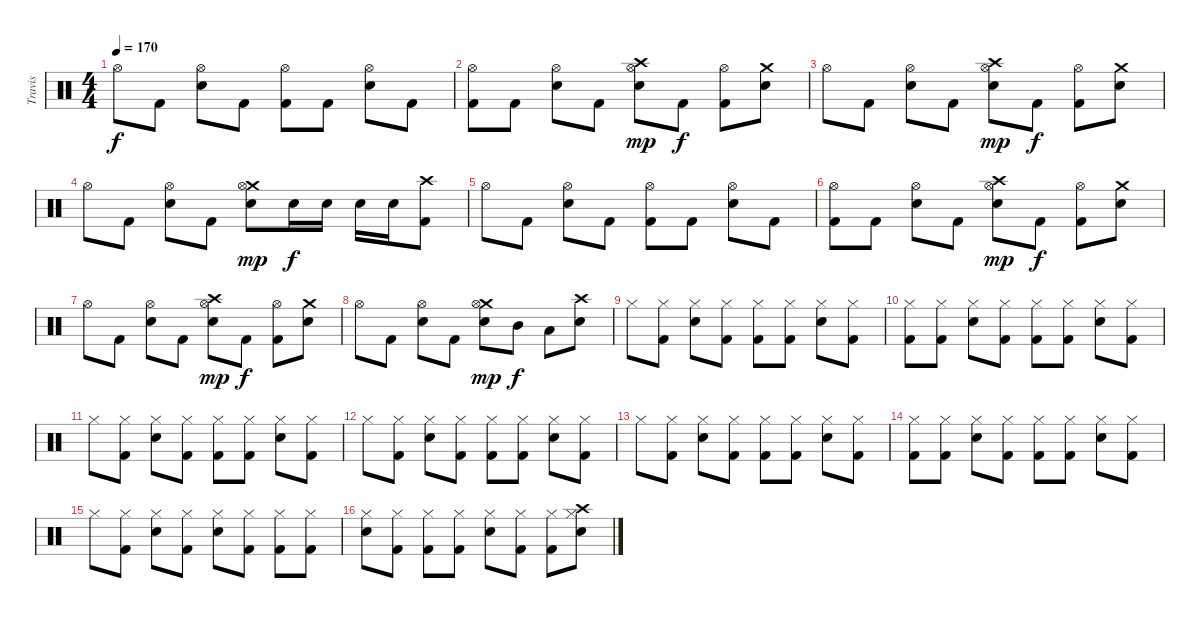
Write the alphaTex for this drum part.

\track ("Travis" "Travis") {instrument percussion}
\staff {score}
\articulation defaults
\ts (4 4)
\tempo 170
\clef neutral
\ks c "Hi-Hat (open)".8{dy f} "Kick (hit) 2".8
("Hi-Hat (open)" "Snare (hit) 2").8 "Kick (hit) 2".8 ("Hi-Hat (open)" "Kick (hit) 2").8 "Kick (hit) 2".8 ("Hi-Hat (open)" "Snare (hit) 2").8 "Kick (hit) 2".8 |
("Hi-Hat (open)" "Kick (hit) 2").8 "Kick (hit) 2".8 ("Hi-Hat (open)" "Snare (hit) 2").8 "Kick (hit) 2".8 ("Crash high (hit)" "Hi-Hat (open)" "Snare (hit) 2").8{dy mp} "Kick (hit) 2".8{dy f} ("Hi-Hat (open)" "Kick (hit) 2").8 ("Crash medium (hit)" "Snare (hit) 2").8 |
"Hi-Hat (open)".8 "Kick (hit) 2".8 ("Hi-Hat (open)" "Snare (hit) 2").8 "Kick (hit) 2".8 ("Crash high (hit)" "Hi-Hat (open)" "Snare (hit) 2").8{dy mp} "Kick (hit) 2".8{dy f} ("Hi-Hat (open)" "Kick (hit) 2").8 ("Crash medium (hit)" "Snare (hit) 2").8 |
"Hi-Hat (open)".8 "Kick (hit) 2".8 ("Hi-Hat (open)" "Snare (hit) 2").8 "Kick (hit) 2".8 ("Crash medium (hit)" "Hi-Hat (open)" "Snare (hit) 2").8{dy mp} "Snare (hit) 2".16{dy f} "Snare (hit) 2".16 "Snare (hit) 2".16 "Snare (hit) 2".16 ("Crash high (hit)" "Kick (hit) 2").8 |
"Hi-Hat (open)".8 "Kick (hit) 2".8 ("Hi-Hat (open)" "Snare (hit) 2").8 "Kick (hit) 2".8 ("Hi-Hat (open)" "Kick (hit) 2").8 "Kick (hit) 2".8 ("Hi-Hat (open)" "Snare (hit) 2").8 "Kick (hit) 2".8 |
("Hi-Hat (open)" "Kick (hit) 2").8 "Kick (hit) 2".8 ("Hi-Hat (open)" "Snare (hit) 2").8 "Kick (hit) 2".8 ("Crash high (hit)" "Hi-Hat (open)" "Snare (hit) 2").8{dy mp} "Kick (hit) 2".8{dy f} ("Hi-Hat (open)" "Kick (hit) 2").8 ("Crash medium (hit)" "Snare (hit) 2").8 |
"Hi-Hat (open)".8 "Kick (hit) 2".8 ("Hi-Hat (open)" "Snare (hit) 2").8 "Kick (hit) 2".8 ("Crash high (hit)" "Hi-Hat (open)" "Snare (hit) 2").8{dy mp} "Kick (hit) 2".8{dy f} ("Hi-Hat (open)" "Kick (hit) 2").8 ("Crash medium (hit)" "Snare (hit) 2").8 |
"Hi-Hat (open)".8 "Kick (hit) 2".8 ("Hi-Hat (open)" "Snare (hit) 2").8 "Kick (hit) 2".8 ("Crash medium (hit)" "Hi-Hat (open)" "Snare (hit) 2").8{dy mp} "Mid Tom (hit)".8{dy f} "Low Tom (hit)".8 ("Crash high (hit)" "Snare (hit) 2").8 |
"Hi-Hat (closed)".8 ("Hi-Hat (closed)" "Kick (hit) 2").8 ("Hi-Hat (closed)" "Snare (hit) 2").8 ("Hi-Hat (closed)" "Kick (hit) 2").8 ("Hi-Hat (closed)" "Kick (hit) 2").8 ("Hi-Hat (closed)" "Kick (hit) 2").8 ("Hi-Hat (closed)" "Snare (hit) 2").8 ("Hi-Hat (closed)" "Kick (hit) 2").8 |
("Hi-Hat (closed)" "Kick (hit) 2").8 ("Hi-Hat (closed)" "Kick (hit) 2").8 ("Hi-Hat (closed)" "Snare (hit) 2").8 ("Hi-Hat (closed)" "Kick (hit) 2").8 ("Hi-Hat (closed)" "Kick (hit) 2").8 ("Hi-Hat (closed)" "Kick (hit) 2").8 ("Hi-Hat (closed)" "Snare (hit) 2").8 ("Hi-Hat (closed)" "Kick (hit) 2").8 |
"Hi-Hat (closed)".8 ("Hi-Hat (closed)" "Kick (hit) 2").8 ("Hi-Hat (closed)" "Snare (hit) 2").8 ("Hi-Hat (closed)" "Kick (hit) 2").8 ("Hi-Hat (closed)" "Kick (hit) 2").8 ("Hi-Hat (closed)" "Kick (hit) 2").8 ("Hi-Hat (closed)" "Snare (hit) 2").8 ("Hi-Hat (closed)" "Kick (hit) 2").8 |
"Hi-Hat (closed)".8 ("Hi-Hat (closed)" "Kick (hit) 2").8 ("Hi-Hat (closed)" "Snare (hit) 2").8 ("Hi-Hat (closed)" "Kick (hit) 2").8 ("Hi-Hat (closed)" "Kick (hit) 2").8 ("Hi-Hat (closed)" "Kick (hit) 2").8 ("Hi-Hat (closed)" "Snare (hit) 2").8 ("Hi-Hat (closed)" "Kick (hit) 2").8 |
"Hi-Hat (closed)".8 ("Hi-Hat (closed)" "Kick (hit) 2").8 ("Hi-Hat (closed)" "Snare (hit) 2").8 ("Hi-Hat (closed)" "Kick (hit) 2").8 ("Hi-Hat (closed)" "Kick (hit) 2").8 ("Hi-Hat (closed)" "Kick (hit) 2").8 ("Hi-Hat (closed)" "Snare (hit) 2").8 ("Hi-Hat (closed)" "Kick (hit) 2").8 |
("Hi-Hat (closed)" "Kick (hit) 2").8 ("Hi-Hat (closed)" "Kick (hit) 2").8 ("Hi-Hat (closed)" "Snare (hit) 2").8 ("Hi-Hat (closed)" "Kick (hit) 2").8 ("Hi-Hat (closed)" "Kick (hit) 2").8 ("Hi-Hat (closed)" "Kick (hit) 2").8 ("Hi-Hat (closed)" "Snare (hit) 2").8 ("Hi-Hat (closed)" "Kick (hit) 2").8 |
"Hi-Hat (closed)".8 ("Hi-Hat (closed)" "Kick (hit) 2").8 ("Hi-Hat (closed)" "Snare (hit) 2").8 ("Hi-Hat (closed)" "Kick (hit) 2").8 ("Hi-Hat (closed)" "Snare (hit) 2").8 ("Hi-Hat (closed)" "Kick (hit) 2").8 ("Hi-Hat (closed)" "Kick (hit) 2").8 ("Hi-Hat (closed)" "Kick (hit) 2").8 |
("Hi-Hat (closed)" "Snare (hit) 2").8 ("Hi-Hat (closed)" "Kick (hit) 2").8 ("Hi-Hat (closed)" "Kick (hit) 2").8 ("Hi-Hat (closed)" "Kick (hit) 2").8 ("Hi-Hat (closed)" "Snare (hit) 2").8 ("Hi-Hat (closed)" "Kick (hit) 2").8 ("Hi-Hat (closed)" "Kick (hit) 2").8 ("Crash high (hit)" "Hi-Hat (closed)" "Snare (hit) 2").8
